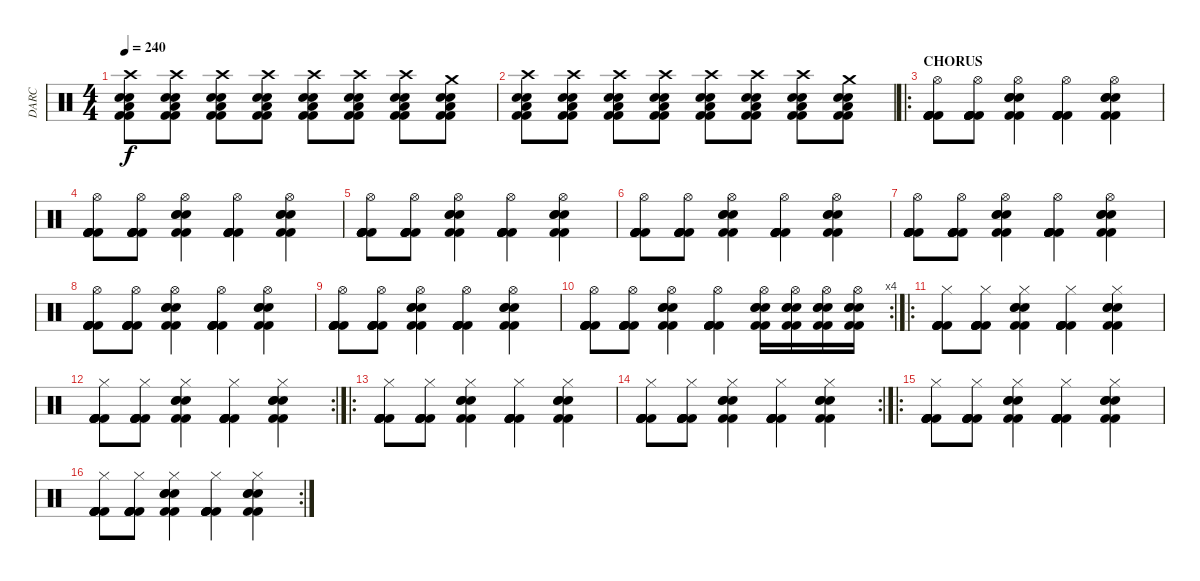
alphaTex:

\track ("DARC" "DARC") {instrument percussion}
\staff {score}
\articulation defaults
\ts (4 4)
\tempo 240
\clef neutral
\ks c
("Crash high (hit)" "Low Floor Tom (hit)" "Electric Snare (hit)" "Kick (hit) 2" "Kick (hit) 2" "Electric Snare (hit)").8{dy f} ("Crash high (hit)" "Low Floor Tom (hit)" "Electric Snare (hit)" "Kick (hit) 2" "Kick (hit) 2" "Electric Snare (hit)").8 ("Crash high (hit)" "Low Floor Tom (hit)" "Electric Snare (hit)" "Kick (hit) 2" "Kick (hit) 2" "Electric Snare (hit)").8 ("Crash high (hit)" "Low Floor Tom (hit)" "Electric Snare (hit)" "Kick (hit) 2" "Kick (hit) 2" "Electric Snare (hit)").8 ("Crash high (hit)" "Low Floor Tom (hit)" "Electric Snare (hit)" "Kick (hit) 2" "Kick (hit) 2" "Electric Snare (hit)").8 ("Crash high (hit)" "Low Floor Tom (hit)" "Electric Snare (hit)" "Kick (hit) 2" "Kick (hit) 2" "Electric Snare (hit)").8 ("Crash high (hit)" "Low Floor Tom (hit)" "Electric Snare (hit)" "Kick (hit) 2" "Kick (hit) 2" "Electric Snare (hit)").8 ("Crash medium (hit)" "Low Floor Tom (hit)" "Electric Snare (hit)" "Kick (hit) 2" "Kick (hit) 2" "Electric Snare (hit)").8 |
("Crash high (hit)" "Low Floor Tom (hit)" "Electric Snare (hit)" "Kick (hit) 2" "Kick (hit) 2" "Electric Snare (hit)").8 ("Crash high (hit)" "Low Floor Tom (hit)" "Electric Snare (hit)" "Kick (hit) 2" "Kick (hit) 2" "Electric Snare (hit)").8 ("Crash high (hit)" "Low Floor Tom (hit)" "Electric Snare (hit)" "Kick (hit) 2" "Kick (hit) 2" "Electric Snare (hit)").8 ("Crash high (hit)" "Low Floor Tom (hit)" "Electric Snare (hit)" "Kick (hit) 2" "Kick (hit) 2" "Electric Snare (hit)").8 ("Crash high (hit)" "Low Floor Tom (hit)" "Electric Snare (hit)" "Kick (hit) 2" "Kick (hit) 2" "Electric Snare (hit)").8 ("Crash high (hit)" "Low Floor Tom (hit)" "Electric Snare (hit)" "Kick (hit) 2" "Kick (hit) 2" "Electric Snare (hit)").8 ("Crash high (hit)" "Low Floor Tom (hit)" "Electric Snare (hit)" "Kick (hit) 2" "Kick (hit) 2" "Electric Snare (hit)").8 ("Crash medium (hit)" "Low Floor Tom (hit)" "Electric Snare (hit)" "Kick (hit) 2" "Kick (hit) 2" "Electric Snare (hit)").8 |
\ro
\section ("" "CHORUS")
("Hi-Hat (open)" "Kick (hit) 2" "Kick (hit) 2" "Kick (hit) 2" "Kick (hit) 2" "Kick (hit) 2").8 ("Hi-Hat (open)" "Kick (hit) 2" "Kick (hit) 2" "Kick (hit) 2" "Kick (hit) 2" "Kick (hit) 2").8 ("Hi-Hat (open)" "Electric Snare (hit)" "Electric Snare (hit)" "Kick (hit) 2" "Kick (hit) 2" "Electric Snare (hit)").4 ("Hi-Hat (open)" "Kick (hit) 2" "Kick (hit) 2" "Kick (hit) 2" "Kick (hit) 2" "Kick (hit) 2").4 ("Hi-Hat (open)" "Electric Snare (hit)" "Electric Snare (hit)" "Kick (hit) 2" "Kick (hit) 2" "Electric Snare (hit)").4 |
("Hi-Hat (open)" "Kick (hit) 2" "Kick (hit) 2" "Kick (hit) 2" "Kick (hit) 2" "Kick (hit) 2").8 ("Hi-Hat (open)" "Kick (hit) 2" "Kick (hit) 2" "Kick (hit) 2" "Kick (hit) 2" "Kick (hit) 2").8 ("Hi-Hat (open)" "Electric Snare (hit)" "Electric Snare (hit)" "Kick (hit) 2" "Kick (hit) 2" "Electric Snare (hit)").4 ("Hi-Hat (open)" "Kick (hit) 2" "Kick (hit) 2" "Kick (hit) 2" "Kick (hit) 2" "Kick (hit) 2").4 ("Hi-Hat (open)" "Electric Snare (hit)" "Electric Snare (hit)" "Kick (hit) 2" "Kick (hit) 2" "Electric Snare (hit)").4 |
("Hi-Hat (open)" "Kick (hit) 2" "Kick (hit) 2" "Kick (hit) 2" "Kick (hit) 2" "Kick (hit) 2").8 ("Hi-Hat (open)" "Kick (hit) 2" "Kick (hit) 2" "Kick (hit) 2" "Kick (hit) 2" "Kick (hit) 2").8 ("Hi-Hat (open)" "Electric Snare (hit)" "Electric Snare (hit)" "Kick (hit) 2" "Kick (hit) 2" "Electric Snare (hit)").4 ("Hi-Hat (open)" "Kick (hit) 2" "Kick (hit) 2" "Kick (hit) 2" "Kick (hit) 2" "Kick (hit) 2").4 ("Hi-Hat (open)" "Electric Snare (hit)" "Electric Snare (hit)" "Kick (hit) 2" "Kick (hit) 2" "Electric Snare (hit)").4 |
("Hi-Hat (open)" "Kick (hit) 2" "Kick (hit) 2" "Kick (hit) 2" "Kick (hit) 2" "Kick (hit) 2").8 ("Hi-Hat (open)" "Kick (hit) 2" "Kick (hit) 2" "Kick (hit) 2" "Kick (hit) 2" "Kick (hit) 2").8 ("Hi-Hat (open)" "Electric Snare (hit)" "Electric Snare (hit)" "Kick (hit) 2" "Kick (hit) 2" "Electric Snare (hit)").4 ("Hi-Hat (open)" "Kick (hit) 2" "Kick (hit) 2" "Kick (hit) 2" "Kick (hit) 2" "Kick (hit) 2").4 ("Hi-Hat (open)" "Electric Snare (hit)" "Electric Snare (hit)" "Kick (hit) 2" "Kick (hit) 2" "Electric Snare (hit)").4 |
("Hi-Hat (open)" "Kick (hit) 2" "Kick (hit) 2" "Kick (hit) 2" "Kick (hit) 2" "Kick (hit) 2").8 ("Hi-Hat (open)" "Kick (hit) 2" "Kick (hit) 2" "Kick (hit) 2" "Kick (hit) 2" "Kick (hit) 2").8 ("Hi-Hat (open)" "Electric Snare (hit)" "Electric Snare (hit)" "Kick (hit) 2" "Kick (hit) 2" "Electric Snare (hit)").4 ("Hi-Hat (open)" "Kick (hit) 2" "Kick (hit) 2" "Kick (hit) 2" "Kick (hit) 2" "Kick (hit) 2").4 ("Hi-Hat (open)" "Electric Snare (hit)" "Electric Snare (hit)" "Kick (hit) 2" "Kick (hit) 2" "Electric Snare (hit)").4 |
("Hi-Hat (open)" "Kick (hit) 2" "Kick (hit) 2" "Kick (hit) 2" "Kick (hit) 2" "Kick (hit) 2").8 ("Hi-Hat (open)" "Kick (hit) 2" "Kick (hit) 2" "Kick (hit) 2" "Kick (hit) 2" "Kick (hit) 2").8 ("Hi-Hat (open)" "Electric Snare (hit)" "Electric Snare (hit)" "Kick (hit) 2" "Kick (hit) 2" "Electric Snare (hit)").4 ("Hi-Hat (open)" "Kick (hit) 2" "Kick (hit) 2" "Kick (hit) 2" "Kick (hit) 2" "Kick (hit) 2").4 ("Hi-Hat (open)" "Electric Snare (hit)" "Electric Snare (hit)" "Kick (hit) 2" "Kick (hit) 2" "Electric Snare (hit)").4 |
("Hi-Hat (open)" "Kick (hit) 2" "Kick (hit) 2" "Kick (hit) 2" "Kick (hit) 2" "Kick (hit) 2").8 ("Hi-Hat (open)" "Kick (hit) 2" "Kick (hit) 2" "Kick (hit) 2" "Kick (hit) 2" "Kick (hit) 2").8 ("Hi-Hat (open)" "Electric Snare (hit)" "Electric Snare (hit)" "Kick (hit) 2" "Kick (hit) 2" "Electric Snare (hit)").4 ("Hi-Hat (open)" "Kick (hit) 2" "Kick (hit) 2" "Kick (hit) 2" "Kick (hit) 2" "Kick (hit) 2").4 ("Hi-Hat (open)" "Electric Snare (hit)" "Electric Snare (hit)" "Kick (hit) 2" "Kick (hit) 2" "Electric Snare (hit)").4 |
\rc 4
("Hi-Hat (open)" "Kick (hit) 2" "Kick (hit) 2" "Kick (hit) 2" "Kick (hit) 2" "Kick (hit) 2").8 ("Hi-Hat (open)" "Kick (hit) 2" "Kick (hit) 2" "Kick (hit) 2" "Kick (hit) 2" "Kick (hit) 2").8 ("Hi-Hat (open)" "Electric Snare (hit)" "Electric Snare (hit)" "Kick (hit) 2" "Kick (hit) 2" "Electric Snare (hit)").4 ("Hi-Hat (open)" "Kick (hit) 2" "Kick (hit) 2" "Kick (hit) 2" "Kick (hit) 2" "Kick (hit) 2").4 ("Hi-Hat (open)" "Electric Snare (hit)" "Electric Snare (hit)" "Kick (hit) 2" "Kick (hit) 2" "Electric Snare (hit)").16 ("Hi-Hat (open)" "Electric Snare (hit)" "Electric Snare (hit)" "Kick (hit) 2" "Kick (hit) 2" "Electric Snare (hit)").16 ("Hi-Hat (open)" "Electric Snare (hit)" "Electric Snare (hit)" "Kick (hit) 2" "Kick (hit) 2" "Electric Snare (hit)").16 ("Hi-Hat (open)" "Electric Snare (hit)" "Electric Snare (hit)" "Kick (hit) 2" "Kick (hit) 2" "Electric Snare (hit)").16 |
\ro
("Hi-Hat (closed)" "Kick (hit) 2" "Kick (hit) 2" "Kick (hit) 2" "Kick (hit) 2" "Kick (hit) 2").8 ("Hi-Hat (closed)" "Kick (hit) 2" "Kick (hit) 2" "Kick (hit) 2" "Kick (hit) 2" "Kick (hit) 2").8 ("Hi-Hat (closed)" "Electric Snare (hit)" "Electric Snare (hit)" "Kick (hit) 2" "Kick (hit) 2" "Electric Snare (hit)").4 ("Hi-Hat (closed)" "Kick (hit) 2" "Kick (hit) 2" "Kick (hit) 2" "Kick (hit) 2" "Kick (hit) 2").4 ("Hi-Hat (closed)" "Electric Snare (hit)" "Electric Snare (hit)" "Kick (hit) 2" "Kick (hit) 2" "Electric Snare (hit)").4 |
\rc 2
("Hi-Hat (closed)" "Kick (hit) 2" "Kick (hit) 2" "Kick (hit) 2" "Kick (hit) 2" "Kick (hit) 2").8 ("Hi-Hat (closed)" "Kick (hit) 2" "Kick (hit) 2" "Kick (hit) 2" "Kick (hit) 2" "Kick (hit) 2").8 ("Hi-Hat (closed)" "Electric Snare (hit)" "Electric Snare (hit)" "Kick (hit) 2" "Kick (hit) 2" "Electric Snare (hit)").4 ("Hi-Hat (closed)" "Kick (hit) 2" "Kick (hit) 2" "Kick (hit) 2" "Kick (hit) 2" "Kick (hit) 2").4 ("Hi-Hat (closed)" "Electric Snare (hit)" "Electric Snare (hit)" "Kick (hit) 2" "Kick (hit) 2" "Electric Snare (hit)").4 |
\ro
("Hi-Hat (closed)" "Kick (hit) 2" "Kick (hit) 2" "Kick (hit) 2" "Kick (hit) 2" "Kick (hit) 2").8 ("Hi-Hat (closed)" "Kick (hit) 2" "Kick (hit) 2" "Kick (hit) 2" "Kick (hit) 2" "Kick (hit) 2").8 ("Hi-Hat (closed)" "Electric Snare (hit)" "Electric Snare (hit)" "Kick (hit) 2" "Kick (hit) 2" "Electric Snare (hit)").4 ("Hi-Hat (closed)" "Kick (hit) 2" "Kick (hit) 2" "Kick (hit) 2" "Kick (hit) 2" "Kick (hit) 2").4 ("Hi-Hat (closed)" "Electric Snare (hit)" "Electric Snare (hit)" "Kick (hit) 2" "Kick (hit) 2" "Electric Snare (hit)").4 |
\rc 2
("Hi-Hat (closed)" "Kick (hit) 2" "Kick (hit) 2" "Kick (hit) 2" "Kick (hit) 2" "Kick (hit) 2").8 ("Hi-Hat (closed)" "Kick (hit) 2" "Kick (hit) 2" "Kick (hit) 2" "Kick (hit) 2" "Kick (hit) 2").8 ("Hi-Hat (closed)" "Electric Snare (hit)" "Electric Snare (hit)" "Kick (hit) 2" "Kick (hit) 2" "Electric Snare (hit)").4 ("Hi-Hat (closed)" "Kick (hit) 2" "Kick (hit) 2" "Kick (hit) 2" "Kick (hit) 2" "Kick (hit) 2").4 ("Hi-Hat (closed)" "Electric Snare (hit)" "Electric Snare (hit)" "Kick (hit) 2" "Kick (hit) 2" "Electric Snare (hit)").4 |
\ro
("Hi-Hat (closed)" "Kick (hit) 2" "Kick (hit) 2" "Kick (hit) 2" "Kick (hit) 2" "Kick (hit) 2").8 ("Hi-Hat (closed)" "Kick (hit) 2" "Kick (hit) 2" "Kick (hit) 2" "Kick (hit) 2" "Kick (hit) 2").8 ("Hi-Hat (closed)" "Electric Snare (hit)" "Electric Snare (hit)" "Kick (hit) 2" "Kick (hit) 2" "Electric Snare (hit)").4 ("Hi-Hat (closed)" "Kick (hit) 2" "Kick (hit) 2" "Kick (hit) 2" "Kick (hit) 2" "Kick (hit) 2").4 ("Hi-Hat (closed)" "Electric Snare (hit)" "Electric Snare (hit)" "Kick (hit) 2" "Kick (hit) 2" "Electric Snare (hit)").4 |
\rc 2
("Hi-Hat (closed)" "Kick (hit) 2" "Kick (hit) 2" "Kick (hit) 2" "Kick (hit) 2" "Kick (hit) 2").8 ("Hi-Hat (closed)" "Kick (hit) 2" "Kick (hit) 2" "Kick (hit) 2" "Kick (hit) 2" "Kick (hit) 2").8 ("Hi-Hat (closed)" "Electric Snare (hit)" "Electric Snare (hit)" "Kick (hit) 2" "Kick (hit) 2" "Electric Snare (hit)").4 ("Hi-Hat (closed)" "Kick (hit) 2" "Kick (hit) 2" "Kick (hit) 2" "Kick (hit) 2" "Kick (hit) 2").4 ("Hi-Hat (closed)" "Electric Snare (hit)" "Electric Snare (hit)" "Kick (hit) 2" "Kick (hit) 2" "Electric Snare (hit)").4
